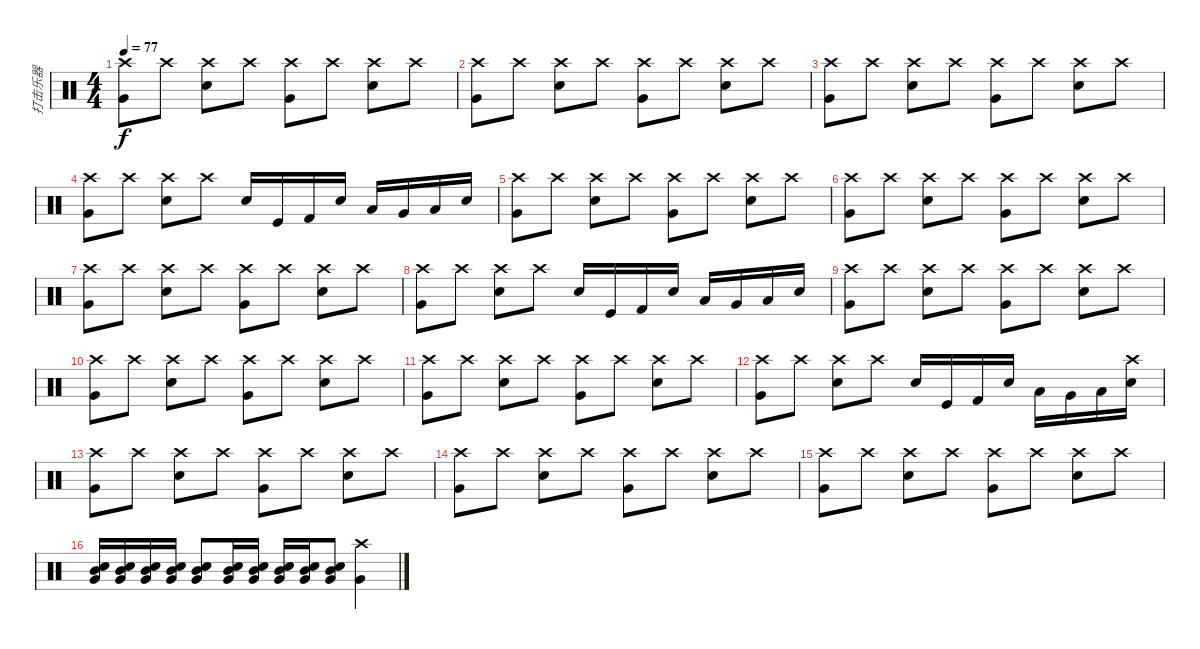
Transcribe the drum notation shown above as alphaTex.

\track ("打击乐器" "打击乐器") {instrument percussion}
\staff {score}
\articulation defaults
\ts (4 4)
\tempo 77
\clef neutral
\ks c
("Crash high (hit)" "Very Low Tom (hit)").8{dy f} "Crash high (hit)".8 ("Crash high (hit)" "Snare (hit) 2").8 "Crash high (hit)".8 ("Crash high (hit)" "Very Low Tom (hit)").8 "Crash high (hit)".8 ("Crash high (hit)" "Snare (hit) 2").8 "Crash high (hit)".8 |
("Crash high (hit)" "Very Low Tom (hit)").8 "Crash high (hit)".8 ("Crash high (hit)" "Snare (hit) 2").8 "Crash high (hit)".8 ("Crash high (hit)" "Very Low Tom (hit)").8 "Crash high (hit)".8 ("Crash high (hit)" "Snare (hit) 2").8 "Crash high (hit)".8 |
("Crash high (hit)" "Very Low Tom (hit)").8 "Crash high (hit)".8 ("Crash high (hit)" "Snare (hit) 2").8 "Crash high (hit)".8 ("Crash high (hit)" "Very Low Tom (hit)").8 "Crash high (hit)".8 ("Crash high (hit)" "Snare (hit) 2").8 "Crash high (hit)".8 |
("Crash high (hit)" "Very Low Tom (hit)").8 "Crash high (hit)".8 ("Crash high (hit)" "Snare (hit) 2").8 "Crash high (hit)".8 "Snare (hit) 2".16 "Kick (hit)".16 "Kick (hit) 2".16 "Snare (hit) 2".16 "Low Floor Tom (hit)".16 "Very Low Tom (hit)".16 "Low Tom (hit)".16 "Snare (hit) 2".16 |
("Crash high (hit)" "Very Low Tom (hit)").8 "Crash high (hit)".8 ("Crash high (hit)" "Snare (hit) 2").8 "Crash high (hit)".8 ("Crash high (hit)" "Very Low Tom (hit)").8 "Crash high (hit)".8 ("Crash high (hit)" "Snare (hit) 2").8 "Crash high (hit)".8 |
("Crash high (hit)" "Very Low Tom (hit)").8 "Crash high (hit)".8 ("Crash high (hit)" "Snare (hit) 2").8 "Crash high (hit)".8 ("Crash high (hit)" "Very Low Tom (hit)").8 "Crash high (hit)".8 ("Crash high (hit)" "Snare (hit) 2").8 "Crash high (hit)".8 |
("Crash high (hit)" "Very Low Tom (hit)").8 "Crash high (hit)".8 ("Crash high (hit)" "Snare (hit) 2").8 "Crash high (hit)".8 ("Crash high (hit)" "Very Low Tom (hit)").8 "Crash high (hit)".8 ("Crash high (hit)" "Snare (hit) 2").8 "Crash high (hit)".8 |
("Crash high (hit)" "Very Low Tom (hit)").8 "Crash high (hit)".8 ("Crash high (hit)" "Snare (hit) 2").8 "Crash high (hit)".8 "Snare (hit) 2".16 "Kick (hit)".16 "Kick (hit) 2".16 "Snare (hit) 2".16 "Low Floor Tom (hit)".16 "Very Low Tom (hit)".16 "Low Tom (hit)".16 "Snare (hit) 2".16 |
("Crash high (hit)" "Very Low Tom (hit)").8 "Crash high (hit)".8 ("Crash high (hit)" "Snare (hit) 2").8 "Crash high (hit)".8 ("Crash high (hit)" "Very Low Tom (hit)").8 "Crash high (hit)".8 ("Crash high (hit)" "Snare (hit) 2").8 "Crash high (hit)".8 |
("Crash high (hit)" "Very Low Tom (hit)").8 "Crash high (hit)".8 ("Crash high (hit)" "Snare (hit) 2").8 "Crash high (hit)".8 ("Crash high (hit)" "Very Low Tom (hit)").8 "Crash high (hit)".8 ("Crash high (hit)" "Snare (hit) 2").8 "Crash high (hit)".8 |
("Crash high (hit)" "Very Low Tom (hit)").8 "Crash high (hit)".8 ("Crash high (hit)" "Snare (hit) 2").8 "Crash high (hit)".8 ("Crash high (hit)" "Very Low Tom (hit)").8 "Crash high (hit)".8 ("Crash high (hit)" "Snare (hit) 2").8 "Crash high (hit)".8 |
("Crash high (hit)" "Very Low Tom (hit)").8 "Crash high (hit)".8 ("Crash high (hit)" "Snare (hit) 2").8 "Crash high (hit)".8 "Snare (hit) 2".16 "Kick (hit)".16 "Kick (hit) 2".16 "Snare (hit) 2".16 "Low Floor Tom (hit)".16 "Very Low Tom (hit)".16 "Low Tom (hit)".16 ("Crash high (hit)" "Snare (hit) 2").16 |
("Crash high (hit)" "Very Low Tom (hit)").8 "Crash high (hit)".8 ("Crash high (hit)" "Snare (hit) 2").8 "Crash high (hit)".8 ("Crash high (hit)" "Very Low Tom (hit)").8 "Crash high (hit)".8 ("Crash high (hit)" "Snare (hit) 2").8 "Crash high (hit)".8 |
("Crash high (hit)" "Very Low Tom (hit)").8 "Crash high (hit)".8 ("Crash high (hit)" "Snare (hit) 2").8 "Crash high (hit)".8 ("Crash high (hit)" "Very Low Tom (hit)").8 "Crash high (hit)".8 ("Crash high (hit)" "Snare (hit) 2").8 "Crash high (hit)".8 |
("Crash high (hit)" "Very Low Tom (hit)").8 "Crash high (hit)".8 ("Crash high (hit)" "Snare (hit) 2").8 "Crash high (hit)".8 ("Crash high (hit)" "Very Low Tom (hit)").8 "Crash high (hit)".8 ("Crash high (hit)" "Snare (hit) 2").8 "Crash high (hit)".8 |
("Snare (hit) 2" "Very Low Tom (hit)" "Mid Tom (hit)").16 ("Snare (hit) 2" "Very Low Tom (hit)" "Mid Tom (hit)").16 ("Snare (hit) 2" "Very Low Tom (hit)" "Mid Tom (hit)").16 ("Snare (hit) 2" "Very Low Tom (hit)" "Mid Tom (hit)").16 ("Snare (hit) 2" "Very Low Tom (hit)" "Mid Tom (hit)").8 ("Snare (hit) 2" "Very Low Tom (hit)" "Mid Tom (hit)").16 ("Snare (hit) 2" "Very Low Tom (hit)" "Mid Tom (hit)").16 ("Snare (hit) 2" "Very Low Tom (hit)" "Mid Tom (hit)").16 ("Snare (hit) 2" "Very Low Tom (hit)" "Mid Tom (hit)").16 ("Snare (hit) 2" "Very Low Tom (hit)" "Mid Tom (hit)").8 ("Crash high (hit)" "Very Low Tom (hit)").4
